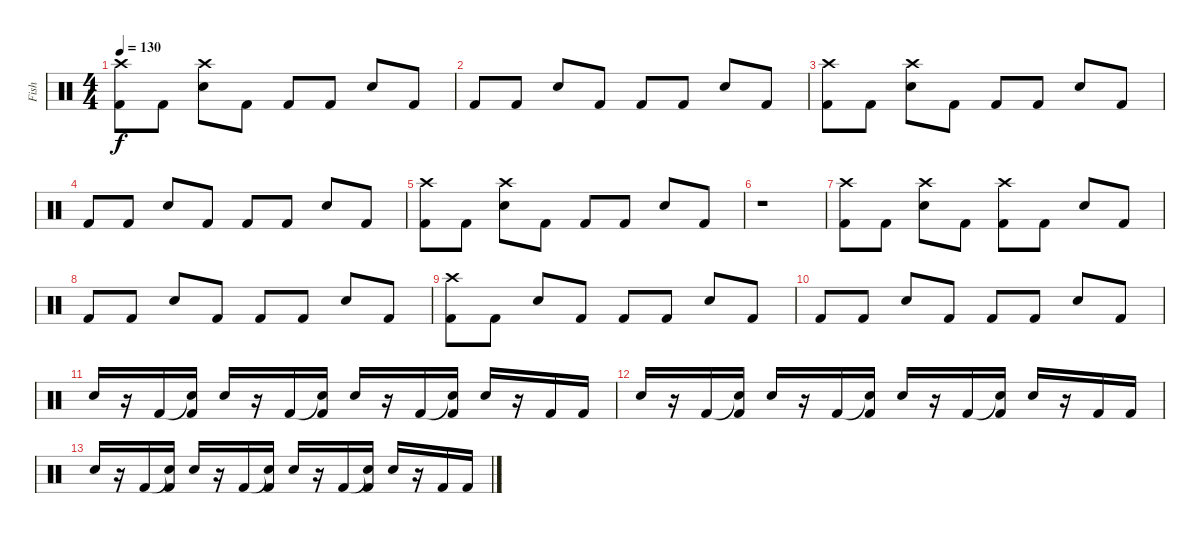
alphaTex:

\track ("Fish" "Fish") {instrument percussion}
\staff {score}
\articulation defaults
\ts (4 4)
\tempo 130
\clef neutral
\ks c
("Crash high (hit)" "Kick (hit) 2").8{dy f} "Kick (hit) 2".8 ("Crash high (hit)" "Snare (hit) 2").8 "Kick (hit) 2".8 "Kick (hit) 2".8 "Kick (hit) 2".8 "Snare (hit) 2".8 "Kick (hit) 2".8 |
"Kick (hit) 2".8 "Kick (hit) 2".8 "Snare (hit) 2".8 "Kick (hit) 2".8 "Kick (hit) 2".8 "Kick (hit) 2".8 "Snare (hit) 2".8 "Kick (hit) 2".8 |
("Crash high (hit)" "Kick (hit) 2").8 "Kick (hit) 2".8 ("Crash high (hit)" "Snare (hit) 2").8 "Kick (hit) 2".8 "Kick (hit) 2".8 "Kick (hit) 2".8 "Snare (hit) 2".8 "Kick (hit) 2".8 |
"Kick (hit) 2".8 "Kick (hit) 2".8 "Snare (hit) 2".8 "Kick (hit) 2".8 "Kick (hit) 2".8 "Kick (hit) 2".8 "Snare (hit) 2".8 "Kick (hit) 2".8 |
("Crash high (hit)" "Kick (hit) 2").8 "Kick (hit) 2".8 ("Crash high (hit)" "Snare (hit) 2").8 "Kick (hit) 2".8 "Kick (hit) 2".8 "Kick (hit) 2".8 "Snare (hit) 2".8 "Kick (hit) 2".8 |
r.1 |
("Crash high (hit)" "Kick (hit) 2").8 "Kick (hit) 2".8 ("Crash high (hit)" "Snare (hit) 2").8 "Kick (hit) 2".8 ("Crash high (hit)" "Kick (hit) 2").8 "Kick (hit) 2".8 "Snare (hit) 2".8 "Kick (hit) 2".8 |
"Kick (hit) 2".8 "Kick (hit) 2".8 "Snare (hit) 2".8 "Kick (hit) 2".8 "Kick (hit) 2".8 "Kick (hit) 2".8 "Snare (hit) 2".8 "Kick (hit) 2".8 |
("Crash high (hit)" "Kick (hit) 2").8 "Kick (hit) 2".8 "Snare (hit) 2".8 "Kick (hit) 2".8 "Kick (hit) 2".8 "Kick (hit) 2".8 "Snare (hit) 2".8 "Kick (hit) 2".8 |
"Kick (hit) 2".8 "Kick (hit) 2".8 "Snare (hit) 2".8 "Kick (hit) 2".8 "Kick (hit) 2".8 "Kick (hit) 2".8 "Snare (hit) 2".8 "Kick (hit) 2".8 |
"Snare (hit) 2".16 r.16 "Kick (hit) 2".16 ("Snare (hit) 2"{t} "Kick (hit) 2").16 "Snare (hit) 2".16 r.16 "Kick (hit) 2".16 ("Snare (hit) 2"{t} "Kick (hit) 2").16 "Snare (hit) 2".16 r.16 "Kick (hit) 2".16 ("Snare (hit) 2"{t} "Kick (hit) 2").16 "Snare (hit) 2".16 r.16 "Kick (hit) 2".16 "Kick (hit) 2".16 |
"Snare (hit) 2".16 r.16 "Kick (hit) 2".16 ("Snare (hit) 2"{t} "Kick (hit) 2").16 "Snare (hit) 2".16 r.16 "Kick (hit) 2".16 ("Snare (hit) 2"{t} "Kick (hit) 2").16 "Snare (hit) 2".16 r.16 "Kick (hit) 2".16 ("Snare (hit) 2"{t} "Kick (hit) 2").16 "Snare (hit) 2".16 r.16 "Kick (hit) 2".16 "Kick (hit) 2".16 |
"Snare (hit) 2".16 r.16 "Kick (hit) 2".16 ("Snare (hit) 2"{t} "Kick (hit) 2").16 "Snare (hit) 2".16 r.16 "Kick (hit) 2".16 ("Snare (hit) 2"{t} "Kick (hit) 2").16 "Snare (hit) 2".16 r.16 "Kick (hit) 2".16 ("Snare (hit) 2"{t} "Kick (hit) 2").16 "Snare (hit) 2".16 r.16 "Kick (hit) 2".16 "Kick (hit) 2".16
